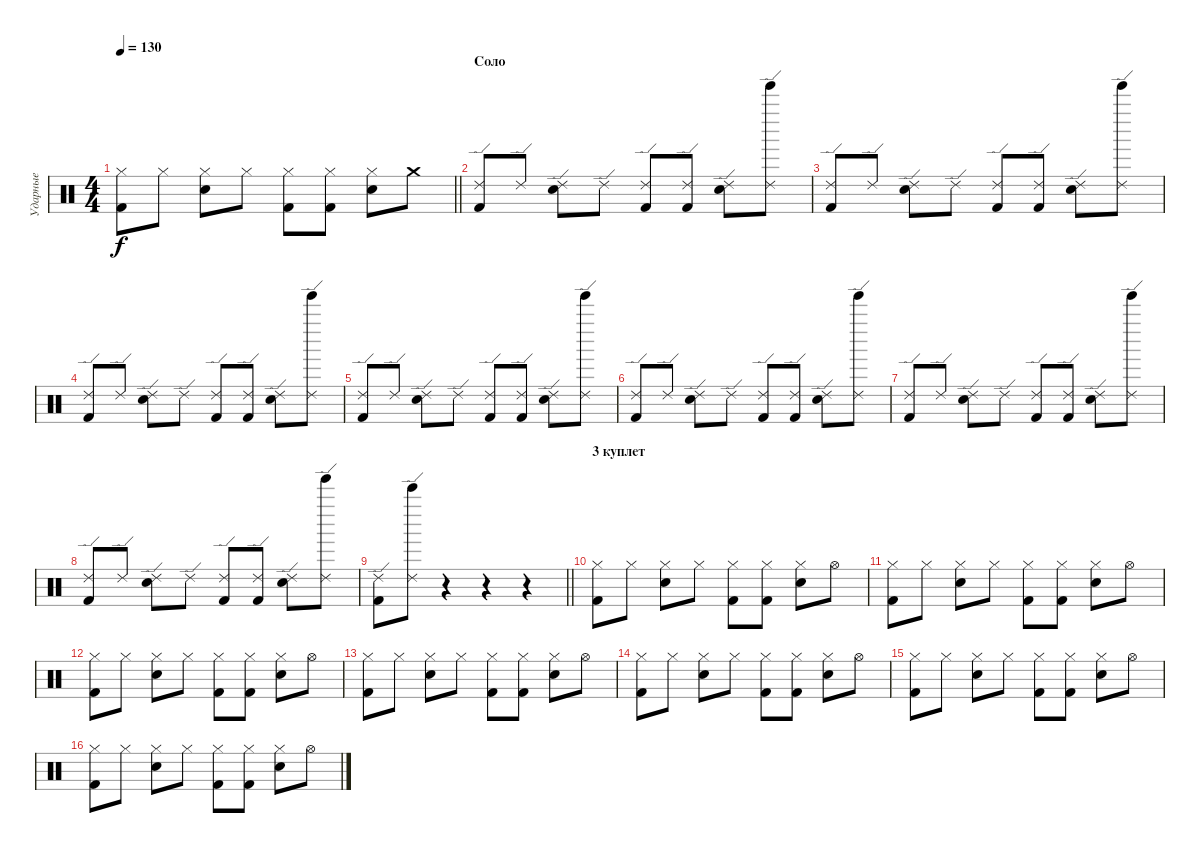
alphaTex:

\track ("Ударные" "Ударные") {instrument percussion}
\staff {score}
\articulation defaults
\ts (4 4)
\tempo 130
\clef neutral
\barLineRight lightlight
\ks c
("Hi-Hat (closed)" "Kick (hit) 2").8{dy f} "Hi-Hat (closed)".8 ("Hi-Hat (closed)" "Electric Snare (hit)").8 "Hi-Hat (closed)".8 ("Hi-Hat (closed)" "Kick (hit) 2").8 ("Hi-Hat (closed)" "Kick (hit) 2").8 ("Hi-Hat (closed)" "Electric Snare (hit)").8 "Crash medium (hit)".8 |
\section ("" "Соло")
("Ride (edge) 2" "Kick (hit) 2").8 "Ride (edge) 2".8 ("Ride (edge) 2" "Electric Snare (hit)").8 "Ride (edge) 2".8 ("Ride (edge) 2" "Kick (hit) 2").8 ("Ride (edge) 2" "Kick (hit) 2").8 ("Ride (edge) 2" "Electric Snare (hit)").8 ("Ride (edge) 2" "Tinkle Bell (hit)").8 |
("Ride (edge) 2" "Kick (hit) 2").8 "Ride (edge) 2".8 ("Ride (edge) 2" "Electric Snare (hit)").8 "Ride (edge) 2".8 ("Ride (edge) 2" "Kick (hit) 2").8 ("Ride (edge) 2" "Kick (hit) 2").8 ("Ride (edge) 2" "Electric Snare (hit)").8 ("Ride (edge) 2" "Tinkle Bell (hit)").8 |
("Ride (edge) 2" "Kick (hit) 2").8 "Ride (edge) 2".8 ("Ride (edge) 2" "Electric Snare (hit)").8 "Ride (edge) 2".8 ("Ride (edge) 2" "Kick (hit) 2").8 ("Ride (edge) 2" "Kick (hit) 2").8 ("Ride (edge) 2" "Electric Snare (hit)").8 ("Ride (edge) 2" "Tinkle Bell (hit)").8 |
("Ride (edge) 2" "Kick (hit) 2").8 "Ride (edge) 2".8 ("Ride (edge) 2" "Electric Snare (hit)").8 "Ride (edge) 2".8 ("Ride (edge) 2" "Kick (hit) 2").8 ("Ride (edge) 2" "Kick (hit) 2").8 ("Ride (edge) 2" "Electric Snare (hit)").8 ("Ride (edge) 2" "Tinkle Bell (hit)").8 |
("Ride (edge) 2" "Kick (hit) 2").8 "Ride (edge) 2".8 ("Ride (edge) 2" "Electric Snare (hit)").8 "Ride (edge) 2".8 ("Ride (edge) 2" "Kick (hit) 2").8 ("Ride (edge) 2" "Kick (hit) 2").8 ("Ride (edge) 2" "Electric Snare (hit)").8 ("Ride (edge) 2" "Tinkle Bell (hit)").8 |
("Ride (edge) 2" "Kick (hit) 2").8 "Ride (edge) 2".8 ("Ride (edge) 2" "Electric Snare (hit)").8 "Ride (edge) 2".8 ("Ride (edge) 2" "Kick (hit) 2").8 ("Ride (edge) 2" "Kick (hit) 2").8 ("Ride (edge) 2" "Electric Snare (hit)").8 ("Ride (edge) 2" "Tinkle Bell (hit)").8 |
("Ride (edge) 2" "Kick (hit) 2").8 "Ride (edge) 2".8 ("Ride (edge) 2" "Electric Snare (hit)").8 "Ride (edge) 2".8 ("Ride (edge) 2" "Kick (hit) 2").8 ("Ride (edge) 2" "Kick (hit) 2").8 ("Ride (edge) 2" "Electric Snare (hit)").8 ("Ride (edge) 2" "Tinkle Bell (hit)").8 |
\barLineRight lightlight
("Ride (edge) 2" "Kick (hit) 2").8 ("Ride (edge) 2" "Bell Tree (hit)").8 r.4 r.4 r.4 |
\section ("" "3 куплет")
("Hi-Hat (closed)" "Kick (hit) 2").8 "Hi-Hat (closed)".8 ("Hi-Hat (closed)" "Electric Snare (hit)").8 "Hi-Hat (closed)".8 ("Hi-Hat (closed)" "Kick (hit) 2").8 ("Hi-Hat (closed)" "Kick (hit) 2").8 ("Hi-Hat (closed)" "Electric Snare (hit)").8 "Hi-Hat (open)".8 |
("Hi-Hat (closed)" "Kick (hit) 2").8 "Hi-Hat (closed)".8 ("Hi-Hat (closed)" "Electric Snare (hit)").8 "Hi-Hat (closed)".8 ("Hi-Hat (closed)" "Kick (hit) 2").8 ("Hi-Hat (closed)" "Kick (hit) 2").8 ("Hi-Hat (closed)" "Electric Snare (hit)").8 "Hi-Hat (open)".8 |
("Hi-Hat (closed)" "Kick (hit) 2").8 "Hi-Hat (closed)".8 ("Hi-Hat (closed)" "Electric Snare (hit)").8 "Hi-Hat (closed)".8 ("Hi-Hat (closed)" "Kick (hit) 2").8 ("Hi-Hat (closed)" "Kick (hit) 2").8 ("Hi-Hat (closed)" "Electric Snare (hit)").8 "Hi-Hat (open)".8 |
("Hi-Hat (closed)" "Kick (hit) 2").8 "Hi-Hat (closed)".8 ("Hi-Hat (closed)" "Electric Snare (hit)").8 "Hi-Hat (closed)".8 ("Hi-Hat (closed)" "Kick (hit) 2").8 ("Hi-Hat (closed)" "Kick (hit) 2").8 ("Hi-Hat (closed)" "Electric Snare (hit)").8 "Hi-Hat (open)".8 |
("Hi-Hat (closed)" "Kick (hit) 2").8 "Hi-Hat (closed)".8 ("Hi-Hat (closed)" "Electric Snare (hit)").8 "Hi-Hat (closed)".8 ("Hi-Hat (closed)" "Kick (hit) 2").8 ("Hi-Hat (closed)" "Kick (hit) 2").8 ("Hi-Hat (closed)" "Electric Snare (hit)").8 "Hi-Hat (open)".8 |
("Hi-Hat (closed)" "Kick (hit) 2").8 "Hi-Hat (closed)".8 ("Hi-Hat (closed)" "Electric Snare (hit)").8 "Hi-Hat (closed)".8 ("Hi-Hat (closed)" "Kick (hit) 2").8 ("Hi-Hat (closed)" "Kick (hit) 2").8 ("Hi-Hat (closed)" "Electric Snare (hit)").8 "Hi-Hat (open)".8 |
("Hi-Hat (closed)" "Kick (hit) 2").8 "Hi-Hat (closed)".8 ("Hi-Hat (closed)" "Electric Snare (hit)").8 "Hi-Hat (closed)".8 ("Hi-Hat (closed)" "Kick (hit) 2").8 ("Hi-Hat (closed)" "Kick (hit) 2").8 ("Hi-Hat (closed)" "Electric Snare (hit)").8 "Hi-Hat (open)".8
